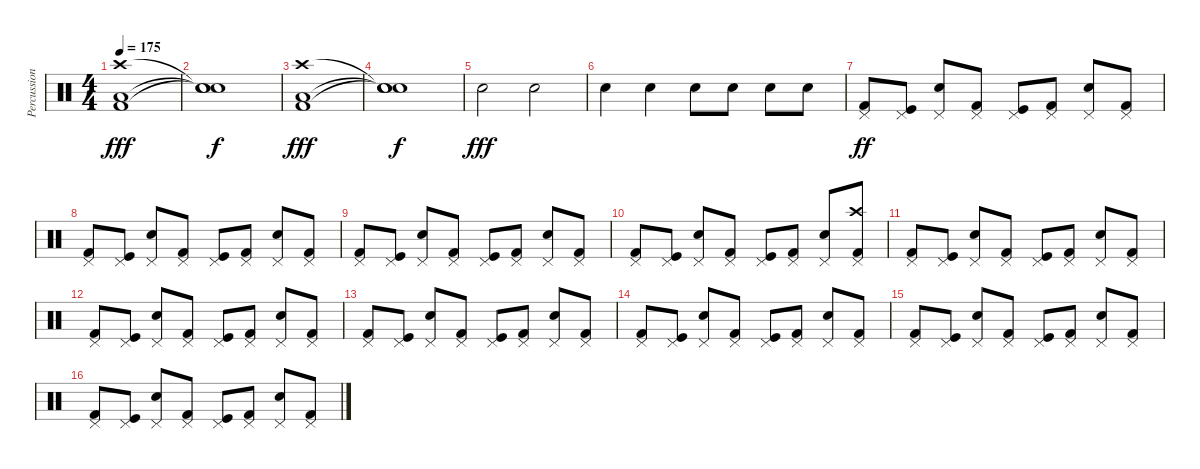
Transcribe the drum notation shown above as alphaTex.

\track ("Percussion (Karlo Žuliæ)" "Percussion") {instrument percussion}
\staff {score}
\articulation defaults
\ts (4 4)
\tempo 175
\clef neutral
\ks c
("Low Floor Tom (hit)" "Kick (hit) 2" "Crash high (hit)").1{dy fff} |
("Snare (hit)"{t} "Snare (hit)"{t} "Snare (hit)"{t}).1{dy f} |
("Low Floor Tom (hit)" "Kick (hit) 2" "Crash high (hit)").1{dy fff} |
("Snare (hit)"{t} "Snare (hit)"{t} "Snare (hit)"{t}).1{dy f} |
"Snare (hit) 2".2{dy fff} "Snare (hit) 2".2 |
"Snare (hit) 2".4 "Snare (hit) 2".4 "Snare (hit) 2".8 "Snare (hit) 2".8 "Snare (hit) 2".8 "Snare (hit) 2".8 |
("Pedal Hi-Hat (hit)" "Kick (hit) 2").8{dy ff} ("Pedal Hi-Hat (hit)" "Kick (hit)").8 ("Pedal Hi-Hat (hit)" "Snare (hit) 2").8 ("Pedal Hi-Hat (hit)" "Kick (hit) 2").8 ("Pedal Hi-Hat (hit)" "Kick (hit)").8 ("Pedal Hi-Hat (hit)" "Kick (hit) 2").8 ("Pedal Hi-Hat (hit)" "Snare (hit) 2").8 ("Pedal Hi-Hat (hit)" "Kick (hit) 2").8 |
("Pedal Hi-Hat (hit)" "Kick (hit) 2").8 ("Pedal Hi-Hat (hit)" "Kick (hit)").8 ("Pedal Hi-Hat (hit)" "Snare (hit) 2").8 ("Pedal Hi-Hat (hit)" "Kick (hit) 2").8 ("Pedal Hi-Hat (hit)" "Kick (hit)").8 ("Pedal Hi-Hat (hit)" "Kick (hit) 2").8 ("Pedal Hi-Hat (hit)" "Snare (hit) 2").8 ("Pedal Hi-Hat (hit)" "Kick (hit) 2").8 |
("Pedal Hi-Hat (hit)" "Kick (hit) 2").8 ("Pedal Hi-Hat (hit)" "Kick (hit)").8 ("Pedal Hi-Hat (hit)" "Snare (hit) 2").8 ("Pedal Hi-Hat (hit)" "Kick (hit) 2").8 ("Pedal Hi-Hat (hit)" "Kick (hit)").8 ("Pedal Hi-Hat (hit)" "Kick (hit) 2").8 ("Pedal Hi-Hat (hit)" "Snare (hit) 2").8 ("Pedal Hi-Hat (hit)" "Kick (hit) 2").8 |
("Pedal Hi-Hat (hit)" "Kick (hit) 2").8 ("Pedal Hi-Hat (hit)" "Kick (hit)").8 ("Pedal Hi-Hat (hit)" "Snare (hit) 2").8 ("Pedal Hi-Hat (hit)" "Kick (hit) 2").8 ("Pedal Hi-Hat (hit)" "Kick (hit)").8 ("Pedal Hi-Hat (hit)" "Kick (hit) 2").8 ("Pedal Hi-Hat (hit)" "Snare (hit) 2").8 ("Pedal Hi-Hat (hit)" "Kick (hit) 2" "Crash high (hit)").8 |
("Pedal Hi-Hat (hit)" "Kick (hit) 2").8 ("Pedal Hi-Hat (hit)" "Kick (hit)").8 ("Pedal Hi-Hat (hit)" "Snare (hit) 2").8 ("Pedal Hi-Hat (hit)" "Kick (hit) 2").8 ("Pedal Hi-Hat (hit)" "Kick (hit)").8 ("Pedal Hi-Hat (hit)" "Kick (hit) 2").8 ("Pedal Hi-Hat (hit)" "Snare (hit) 2").8 ("Pedal Hi-Hat (hit)" "Kick (hit) 2").8 |
("Pedal Hi-Hat (hit)" "Kick (hit) 2").8 ("Pedal Hi-Hat (hit)" "Kick (hit)").8 ("Pedal Hi-Hat (hit)" "Snare (hit) 2").8 ("Pedal Hi-Hat (hit)" "Kick (hit) 2").8 ("Pedal Hi-Hat (hit)" "Kick (hit)").8 ("Pedal Hi-Hat (hit)" "Kick (hit) 2").8 ("Pedal Hi-Hat (hit)" "Snare (hit) 2").8 ("Pedal Hi-Hat (hit)" "Kick (hit) 2").8 |
("Pedal Hi-Hat (hit)" "Kick (hit) 2").8 ("Pedal Hi-Hat (hit)" "Kick (hit)").8 ("Pedal Hi-Hat (hit)" "Snare (hit) 2").8 ("Pedal Hi-Hat (hit)" "Kick (hit) 2").8 ("Pedal Hi-Hat (hit)" "Kick (hit)").8 ("Pedal Hi-Hat (hit)" "Kick (hit) 2").8 ("Pedal Hi-Hat (hit)" "Snare (hit) 2").8 ("Pedal Hi-Hat (hit)" "Kick (hit) 2").8 |
("Pedal Hi-Hat (hit)" "Kick (hit) 2").8 ("Pedal Hi-Hat (hit)" "Kick (hit)").8 ("Pedal Hi-Hat (hit)" "Snare (hit) 2").8 ("Pedal Hi-Hat (hit)" "Kick (hit) 2").8 ("Pedal Hi-Hat (hit)" "Kick (hit)").8 ("Pedal Hi-Hat (hit)" "Kick (hit) 2").8 ("Pedal Hi-Hat (hit)" "Snare (hit) 2").8 ("Pedal Hi-Hat (hit)" "Kick (hit) 2").8 |
("Pedal Hi-Hat (hit)" "Kick (hit) 2").8 ("Pedal Hi-Hat (hit)" "Kick (hit)").8 ("Pedal Hi-Hat (hit)" "Snare (hit) 2").8 ("Pedal Hi-Hat (hit)" "Kick (hit) 2").8 ("Pedal Hi-Hat (hit)" "Kick (hit)").8 ("Pedal Hi-Hat (hit)" "Kick (hit) 2").8 ("Pedal Hi-Hat (hit)" "Snare (hit) 2").8 ("Pedal Hi-Hat (hit)" "Kick (hit) 2").8 |
("Pedal Hi-Hat (hit)" "Kick (hit) 2").8 ("Pedal Hi-Hat (hit)" "Kick (hit)").8 ("Pedal Hi-Hat (hit)" "Snare (hit) 2").8 ("Pedal Hi-Hat (hit)" "Kick (hit) 2").8 ("Pedal Hi-Hat (hit)" "Kick (hit)").8 ("Pedal Hi-Hat (hit)" "Kick (hit) 2").8 ("Pedal Hi-Hat (hit)" "Snare (hit) 2").8 ("Pedal Hi-Hat (hit)" "Kick (hit) 2").8
